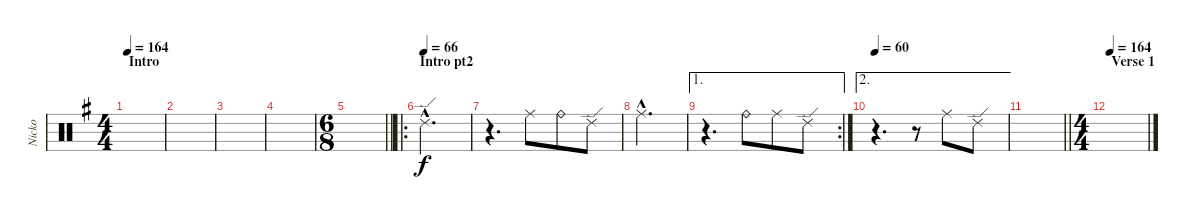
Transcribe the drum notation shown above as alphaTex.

\track ("Nicko" "Nicko") {instrument percussion}
\staff {score}
\articulation defaults
\ts (4 4)
\section ("" "Intro")
\tempo 164
\tempo 60
\tempo 164
\clef neutral
\ks eminor
|
|
|
|
\ts (6 8)
\barLineRight lightlight
|
\ro
\section ("" "Intro pt2")
\tempo (66)
"Ride (edge) 2"{hac}.2{d} |
r.4{d} "Ride (middle)".8 "Ride (bell)".8 "Ride (edge) 2".8 |
"Ride (middle)"{hac}.2{d} |
\ae 1
\rc 2
r.4{d} "Ride (bell)".8 "Ride (middle)".8 "Ride (edge) 2".8 |
\ae 2
\tempo 60
r.4{d} r.8 "Ride (middle)".8 "Ride (edge) 2".8 |
\barLineRight lightlight
|
\ts (4 4)
\section ("" "Verse 1")
\tempo 164
